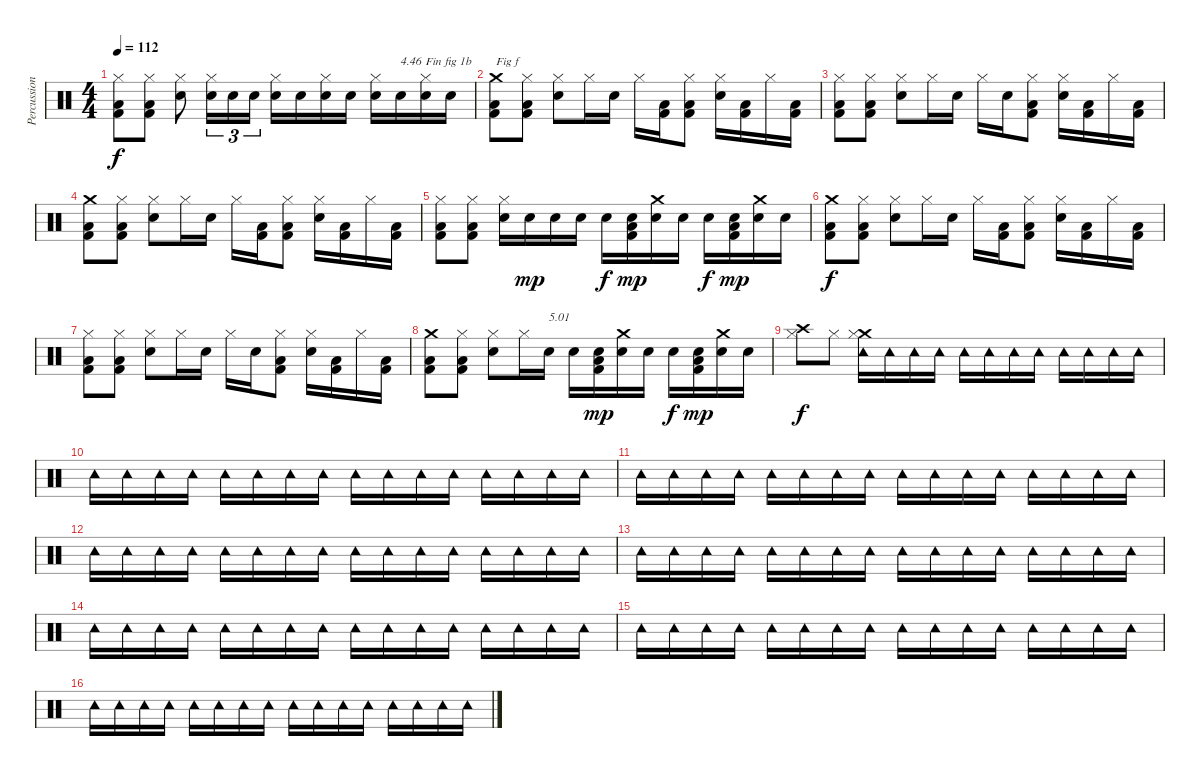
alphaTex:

\track ("Percussions" "Percussion") {instrument percussion}
\staff {score}
\articulation defaults
\ts (4 4)
\tempo 112
\clef neutral
\ks c
("Kick (hit) 2" "Low Floor Tom (hit)" "Hi-Hat (closed)").8{dy f} ("Kick (hit) 2" "Low Floor Tom (hit)" "Hi-Hat (closed)").8 ("Snare (hit) 2" "Hi-Hat (closed)").8 ("Snare (hit) 2" "Hi-Hat (closed)").16{tu (3 2)} "Snare (hit) 2".16{tu (3 2)} "Snare (hit) 2".16{tu (3 2)} ("Snare (hit) 2" "Hi-Hat (closed)").16 "Snare (hit) 2".16 ("Snare (hit) 2" "Hi-Hat (closed)").16 "Snare (hit) 2".16 ("Snare (hit) 2" "Hi-Hat (closed)").16 "Snare (hit) 2".16{txt "4.46"} ("Snare (hit) 2" "Hi-Hat (closed)").16{txt "Fin fig 1b"} "Snare (hit) 2".16 |
("Kick (hit) 2" "Low Floor Tom (hit)" "Crash medium (hit)").8{txt "Fig f"} ("Kick (hit) 2" "Low Floor Tom (hit)" "Hi-Hat (closed)").8 ("Snare (hit) 2" "Hi-Hat (closed)").8 "Hi-Hat (closed)".16 "Snare (hit) 2".16 "Hi-Hat (closed)".16 ("Kick (hit) 2" "Low Floor Tom (hit)").16 ("Kick (hit) 2" "Low Floor Tom (hit)" "Hi-Hat (closed)").8 ("Snare (hit) 2" "Hi-Hat (closed)").16 ("Kick (hit) 2" "Low Floor Tom (hit)").16 "Hi-Hat (closed)".16 ("Kick (hit) 2" "Low Floor Tom (hit)").16 |
("Kick (hit) 2" "Low Floor Tom (hit)" "Hi-Hat (closed)").8 ("Kick (hit) 2" "Low Floor Tom (hit)" "Hi-Hat (closed)").8 ("Snare (hit) 2" "Hi-Hat (closed)").8 "Hi-Hat (closed)".16 "Snare (hit) 2".16 "Hi-Hat (closed)".16 "Snare (hit) 2".16 ("Kick (hit) 2" "Low Floor Tom (hit)" "Hi-Hat (closed)").8 ("Snare (hit) 2" "Hi-Hat (closed)").16 ("Kick (hit) 2" "Low Floor Tom (hit)").16 "Hi-Hat (closed)".16 ("Kick (hit) 2" "Low Floor Tom (hit)").16 |
("Kick (hit) 2" "Low Floor Tom (hit)" "Crash medium (hit)").8 ("Kick (hit) 2" "Low Floor Tom (hit)" "Hi-Hat (closed)").8 ("Snare (hit) 2" "Hi-Hat (closed)").8 "Hi-Hat (closed)".16 "Snare (hit) 2".16 "Hi-Hat (closed)".16 ("Kick (hit) 2" "Low Floor Tom (hit)").16 ("Kick (hit) 2" "Low Floor Tom (hit)" "Hi-Hat (closed)").8 ("Snare (hit) 2" "Hi-Hat (closed)").16 ("Kick (hit) 2" "Low Floor Tom (hit)").16 "Hi-Hat (closed)".16 ("Kick (hit) 2" "Low Floor Tom (hit)").16 |
("Kick (hit) 2" "Low Floor Tom (hit)" "Hi-Hat (closed)").8 ("Kick (hit) 2" "Low Floor Tom (hit)" "Hi-Hat (closed)").8 ("Snare (hit) 2" "Hi-Hat (closed)").16 "Snare (hit) 2".16{dy mp} "Snare (hit) 2".16 "Snare (hit) 2".16 "Snare (hit) 2".16{dy f} ("Kick (hit) 2" "Low Floor Tom (hit)" "Snare (hit) 2").16{dy mp} ("Snare (hit) 2" "Crash medium (hit)").16 "Snare (hit) 2".16 "Snare (hit) 2".16{dy f} ("Kick (hit) 2" "Low Floor Tom (hit)" "Snare (hit) 2").16{dy mp} ("Snare (hit) 2" "Crash medium (hit)").16 "Snare (hit) 2".16 |
("Kick (hit) 2" "Low Floor Tom (hit)" "Crash medium (hit)").8{dy f} ("Kick (hit) 2" "Low Floor Tom (hit)" "Hi-Hat (closed)").8 ("Snare (hit) 2" "Hi-Hat (closed)").8 "Hi-Hat (closed)".16 "Snare (hit) 2".16 "Hi-Hat (closed)".16 ("Kick (hit) 2" "Low Floor Tom (hit)").16 ("Kick (hit) 2" "Low Floor Tom (hit)" "Hi-Hat (closed)").8 ("Snare (hit) 2" "Hi-Hat (closed)").16 ("Kick (hit) 2" "Low Floor Tom (hit)").16 "Hi-Hat (closed)".16 ("Kick (hit) 2" "Low Floor Tom (hit)").16 |
("Kick (hit) 2" "Low Floor Tom (hit)" "Hi-Hat (closed)").8 ("Kick (hit) 2" "Low Floor Tom (hit)" "Hi-Hat (closed)").8 ("Snare (hit) 2" "Hi-Hat (closed)").8 "Hi-Hat (closed)".16 "Snare (hit) 2".16 "Hi-Hat (closed)".16 "Snare (hit) 2".16 ("Kick (hit) 2" "Low Floor Tom (hit)" "Hi-Hat (closed)").8 ("Snare (hit) 2" "Hi-Hat (closed)").16 ("Kick (hit) 2" "Low Floor Tom (hit)").16 "Hi-Hat (closed)".16 ("Kick (hit) 2" "Low Floor Tom (hit)").16 |
("Kick (hit) 2" "Low Floor Tom (hit)" "Crash medium (hit)").8 ("Kick (hit) 2" "Low Floor Tom (hit)" "Hi-Hat (closed)").8 ("Snare (hit) 2" "Hi-Hat (closed)").8 "Hi-Hat (closed)".16 "Snare (hit) 2".16{txt "5.01"} "Snare (hit) 2".16 ("Kick (hit) 2" "Low Floor Tom (hit)" "Snare (hit) 2").16{dy mp} ("Snare (hit) 2" "Crash medium (hit)").16 "Snare (hit) 2".16 "Snare (hit) 2".16{dy f} ("Kick (hit) 2" "Low Floor Tom (hit)" "Snare (hit) 2").16{dy mp} ("Snare (hit) 2" "Crash medium (hit)").16 "Snare (hit) 2".16 |
("Crash high (hit)" "Hi-Hat (closed)").8{dy f} "Hi-Hat (closed)".8 ("Tambourine (hit)" "Crash medium (hit)" "Hi-Hat (closed)").16 "Tambourine (hit)".16 "Tambourine (hit)".16 "Tambourine (hit)".16 "Tambourine (hit)".16 "Tambourine (hit)".16 "Tambourine (hit)".16 "Tambourine (hit)".16 "Tambourine (hit)".16 "Tambourine (hit)".16 "Tambourine (hit)".16 "Tambourine (hit)".16 |
"Tambourine (hit)".16 "Tambourine (hit)".16 "Tambourine (hit)".16 "Tambourine (hit)".16 "Tambourine (hit)".16 "Tambourine (hit)".16 "Tambourine (hit)".16 "Tambourine (hit)".16 "Tambourine (hit)".16 "Tambourine (hit)".16 "Tambourine (hit)".16 "Tambourine (hit)".16 "Tambourine (hit)".16 "Tambourine (hit)".16 "Tambourine (hit)".16 "Tambourine (hit)".16 |
"Tambourine (hit)".16 "Tambourine (hit)".16 "Tambourine (hit)".16 "Tambourine (hit)".16 "Tambourine (hit)".16 "Tambourine (hit)".16 "Tambourine (hit)".16 "Tambourine (hit)".16 "Tambourine (hit)".16 "Tambourine (hit)".16 "Tambourine (hit)".16 "Tambourine (hit)".16 "Tambourine (hit)".16 "Tambourine (hit)".16 "Tambourine (hit)".16 "Tambourine (hit)".16 |
"Tambourine (hit)".16 "Tambourine (hit)".16 "Tambourine (hit)".16 "Tambourine (hit)".16 "Tambourine (hit)".16 "Tambourine (hit)".16 "Tambourine (hit)".16 "Tambourine (hit)".16 "Tambourine (hit)".16 "Tambourine (hit)".16 "Tambourine (hit)".16 "Tambourine (hit)".16 "Tambourine (hit)".16 "Tambourine (hit)".16 "Tambourine (hit)".16 "Tambourine (hit)".16 |
"Tambourine (hit)".16 "Tambourine (hit)".16 "Tambourine (hit)".16 "Tambourine (hit)".16 "Tambourine (hit)".16 "Tambourine (hit)".16 "Tambourine (hit)".16 "Tambourine (hit)".16 "Tambourine (hit)".16 "Tambourine (hit)".16 "Tambourine (hit)".16 "Tambourine (hit)".16 "Tambourine (hit)".16 "Tambourine (hit)".16 "Tambourine (hit)".16 "Tambourine (hit)".16 |
"Tambourine (hit)".16 "Tambourine (hit)".16 "Tambourine (hit)".16 "Tambourine (hit)".16 "Tambourine (hit)".16 "Tambourine (hit)".16 "Tambourine (hit)".16 "Tambourine (hit)".16 "Tambourine (hit)".16 "Tambourine (hit)".16 "Tambourine (hit)".16 "Tambourine (hit)".16 "Tambourine (hit)".16 "Tambourine (hit)".16 "Tambourine (hit)".16 "Tambourine (hit)".16 |
"Tambourine (hit)".16 "Tambourine (hit)".16 "Tambourine (hit)".16 "Tambourine (hit)".16 "Tambourine (hit)".16 "Tambourine (hit)".16 "Tambourine (hit)".16 "Tambourine (hit)".16 "Tambourine (hit)".16 "Tambourine (hit)".16 "Tambourine (hit)".16 "Tambourine (hit)".16 "Tambourine (hit)".16 "Tambourine (hit)".16 "Tambourine (hit)".16 "Tambourine (hit)".16 |
"Tambourine (hit)".16 "Tambourine (hit)".16 "Tambourine (hit)".16 "Tambourine (hit)".16 "Tambourine (hit)".16 "Tambourine (hit)".16 "Tambourine (hit)".16 "Tambourine (hit)".16 "Tambourine (hit)".16 "Tambourine (hit)".16 "Tambourine (hit)".16 "Tambourine (hit)".16 "Tambourine (hit)".16 "Tambourine (hit)".16 "Tambourine (hit)".16 "Tambourine (hit)".16
